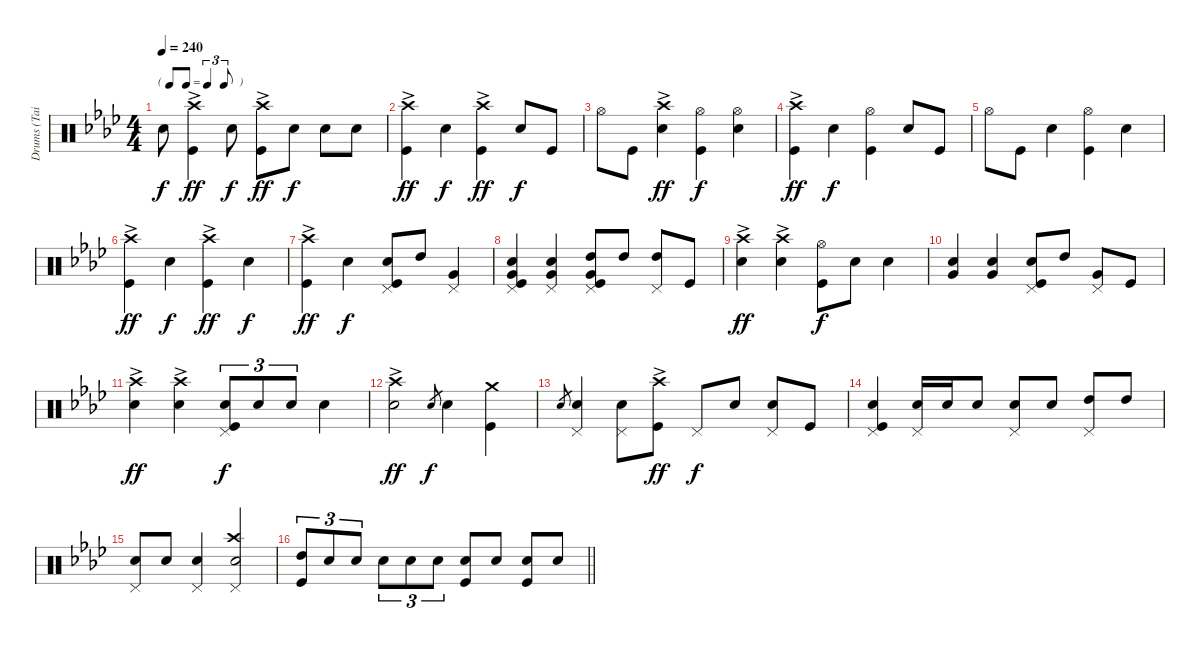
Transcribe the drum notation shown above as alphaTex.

\track ("Drums (Tainaka Ritsu)" "Drums (Tai") {instrument percussion}
\staff {score}
\articulation defaults
\ts (4 4)
\tf triplet8th
\tempo 240
\clef neutral
\ks ab "Snare (hit) 2".8{dy f}
("Kick (hit)" "Crash high (hit)"{ac}).4{dy ff} "Snare (hit) 2".8{dy f} ("Kick (hit)" "Crash high (hit)"{ac}).8{dy ff} "Snare (hit) 2".8{dy f} "Snare (hit) 2".8 "Snare (hit) 2".8 |
("Crash high (hit)"{ac} "Kick (hit)").4{dy ff} "Snare (hit) 2".4{dy f} ("Crash high (hit)"{ac} "Kick (hit)").4{dy ff} "Snare (hit) 2".8{dy f} "Kick (hit)".8 |
"Hi-Hat (open)".8 "Kick (hit)".8 ("Crash high (hit)"{ac} "Snare (hit) 2").4{dy ff} ("Kick (hit)" "Hi-Hat (open)").4{dy f} ("Hi-Hat (open)" "Snare (hit) 2").4 |
("Crash high (hit)"{ac} "Kick (hit)").4{dy ff} "Snare (hit) 2".4{dy f} ("Hi-Hat (open)" "Kick (hit)").4 "Snare (hit) 2".8 "Kick (hit)".8 |
"Hi-Hat (open)".8 "Kick (hit)".8 "Snare (hit) 2".4 ("Hi-Hat (open)" "Kick (hit)").4 "Snare (hit) 2".4 |
("Crash high (hit)"{ac} "Kick (hit)").4{dy ff} "Snare (hit) 2".4{dy f} ("Crash high (hit)"{ac} "Kick (hit)").4{dy ff} "Snare (hit) 2".4{dy f} |
("Crash high (hit)"{ac} "Kick (hit)").4{dy ff} "Snare (hit) 2".4{dy f} ("Kick (hit)" "Snare (hit) 2" "Pedal Hi-Hat (hit)").8 "High Tom (hit)".8 ("Very Low Tom (hit)" "Pedal Hi-Hat (hit)").4 |
("Snare (hit) 2" "Very Low Tom (hit)" "Kick (hit)" "Pedal Hi-Hat (hit)").4 ("Snare (hit) 2" "Very Low Tom (hit)" "Pedal Hi-Hat (hit)").4 ("Kick (hit)" "Very Low Tom (hit)" "High Tom (hit)" "Pedal Hi-Hat (hit)").8 "High Tom (hit)".8 ("High Tom (hit)" "Pedal Hi-Hat (hit)").8 "Kick (hit)".8 |
("Crash high (hit)"{ac} "Snare (hit) 2").4{dy ff} ("Snare (hit) 2" "Crash high (hit)"{ac}).4 ("Hi-Hat (open)" "Kick (hit)").8{dy f} "Snare (hit) 2".8 "Snare (hit) 2".4 |
("Snare (hit) 2" "Very Low Tom (hit)").4 ("Very Low Tom (hit)" "Snare (hit) 2").4 ("Pedal Hi-Hat (hit)" "Kick (hit)" "Snare (hit) 2").8 "High Tom (hit)".8 ("Pedal Hi-Hat (hit)" "Very Low Tom (hit)").8 "Kick (hit)".8 |
("Crash high (hit)"{ac} "Snare (hit) 2").4{dy ff} ("Snare (hit) 2" "Crash high (hit)"{ac}).4 ("Kick (hit)" "Pedal Hi-Hat (hit)" "Snare (hit) 2").8{tu (3 2) dy f} "Snare (hit) 2".8{tu (3 2)} "Snare (hit) 2".8{tu (3 2)} "Snare (hit) 2".4 |
("Snare (hit) 2" "Crash high (hit)"{ac}).2{dy ff} "Snare (hit) 2".8{gr dy f} "Snare (hit) 2".4 ("Crash medium (hit)" "Kick (hit)").4 |
"Snare (hit) 2".8{gr} ("Pedal Hi-Hat (hit)" "Snare (hit) 2").4 ("Snare (hit) 2" "Pedal Hi-Hat (hit)").8 ("Kick (hit)" "Crash high (hit)"{ac}).8{dy ff} "Pedal Hi-Hat (hit)".8{dy f} "Snare (hit) 2".8 ("Snare (hit) 2" "Pedal Hi-Hat (hit)").8 "Kick (hit)".8 |
("Pedal Hi-Hat (hit)" "Kick (hit)" "Snare (hit) 2").4 ("Pedal Hi-Hat (hit)" "Snare (hit) 2").16 "Snare (hit) 2".16 "Snare (hit) 2".8 ("Pedal Hi-Hat (hit)" "Snare (hit) 2").8 "Snare (hit) 2".8 ("Pedal Hi-Hat (hit)" "High Tom (hit)").8 "High Tom (hit)".8 |
("Pedal Hi-Hat (hit)" "Snare (hit) 2").8 "Snare (hit) 2".8 ("Snare (hit) 2" "Pedal Hi-Hat (hit)").4 ("Crash high (hit)" "Snare (hit) 2" "Pedal Hi-Hat (hit)").2 |
\barLineRight lightlight
("High Tom (hit)" "Kick (hit)").8{tu (3 2)} "Snare (hit) 2".8{tu (3 2)} "Snare (hit) 2".8{tu (3 2)} "Snare (hit) 2".8{tu (3 2)} "Snare (hit) 2".8{tu (3 2)} "Snare (hit) 2".8{tu (3 2)} ("Snare (hit) 2" "Kick (hit)").8 "Snare (hit) 2".8 ("Snare (hit) 2" "Kick (hit)").8 "Snare (hit) 2".8
